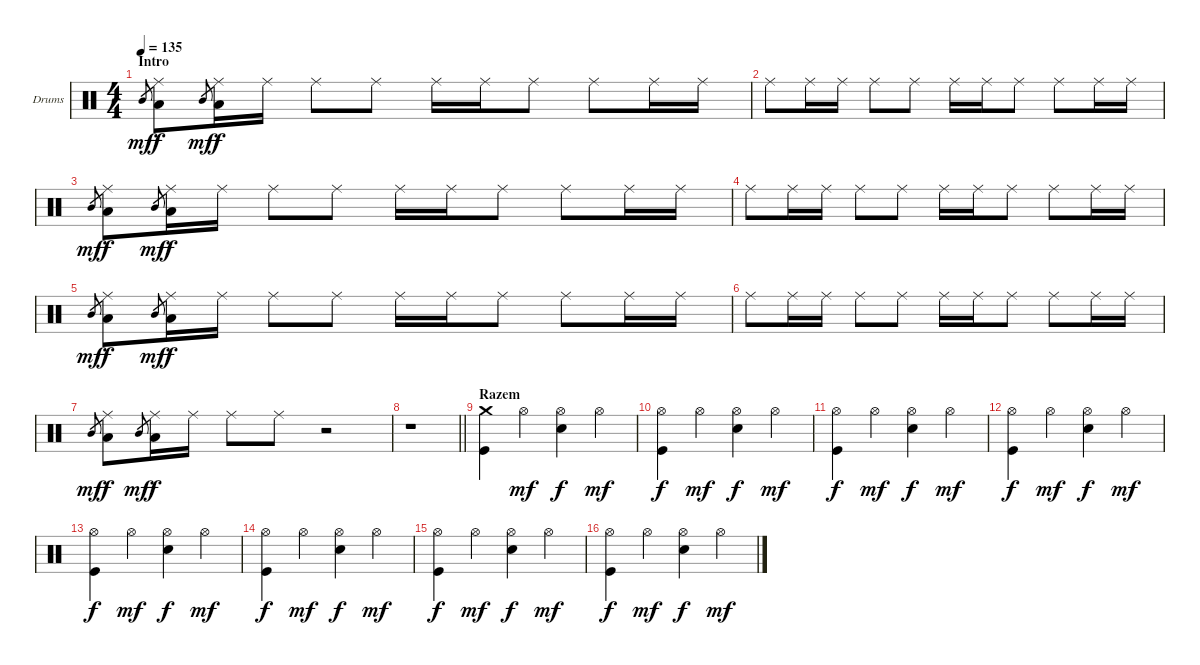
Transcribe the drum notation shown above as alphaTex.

\bracketExtendMode groupsimilarinstruments
\firstSystemTrackNameOrientation horizontal
\otherSystemsTrackNameOrientation horizontal
\track ("Drumkit" "Drums") {instrument percussion}
\staff {score}
\articulation defaults
\ts (4 4)
\beaming (8 2 2 2 2)
\section ("" "Intro")
\tempo 135
\clef neutral
\ks c "Mid Tom (hit)".8{gr dy mf}
("Ride (middle)" "Low Tom (hit)").8{dy f} "Mid Tom (hit)".8{gr dy mf} ("Ride (middle)" "Low Tom (hit)").16{dy f} "Ride (middle)".16 "Ride (middle)".8 "Ride (middle)".8 "Ride (middle)".16 "Ride (middle)".16 "Ride (middle)".8 "Ride (middle)".8 "Ride (middle)".16 "Ride (middle)".16 |
"Ride (middle)".8 "Ride (middle)".16 "Ride (middle)".16 "Ride (middle)".8 "Ride (middle)".8 "Ride (middle)".16 "Ride (middle)".16 "Ride (middle)".8 "Ride (middle)".8 "Ride (middle)".16 "Ride (middle)".16 |
"Mid Tom (hit)".8{gr dy mf} ("Ride (middle)" "Low Tom (hit)").8{dy f} "Mid Tom (hit)".8{gr dy mf} ("Ride (middle)" "Low Tom (hit)").16{dy f} "Ride (middle)".16 "Ride (middle)".8 "Ride (middle)".8 "Ride (middle)".16 "Ride (middle)".16 "Ride (middle)".8 "Ride (middle)".8 "Ride (middle)".16 "Ride (middle)".16 |
"Ride (middle)".8 "Ride (middle)".16 "Ride (middle)".16 "Ride (middle)".8 "Ride (middle)".8 "Ride (middle)".16 "Ride (middle)".16 "Ride (middle)".8 "Ride (middle)".8 "Ride (middle)".16 "Ride (middle)".16 |
"Mid Tom (hit)".8{gr dy mf} ("Ride (middle)" "Low Tom (hit)").8{dy f} "Mid Tom (hit)".8{gr dy mf} ("Ride (middle)" "Low Tom (hit)").16{dy f} "Ride (middle)".16 "Ride (middle)".8 "Ride (middle)".8 "Ride (middle)".16 "Ride (middle)".16 "Ride (middle)".8 "Ride (middle)".8 "Ride (middle)".16 "Ride (middle)".16 |
"Ride (middle)".8 "Ride (middle)".16 "Ride (middle)".16 "Ride (middle)".8 "Ride (middle)".8 "Ride (middle)".16 "Ride (middle)".16 "Ride (middle)".8 "Ride (middle)".8 "Ride (middle)".16 "Ride (middle)".16 |
"Mid Tom (hit)".8{gr dy mf} ("Ride (middle)" "Low Tom (hit)").8{dy f} "Mid Tom (hit)".8{gr dy mf} ("Ride (middle)" "Low Tom (hit)").16{dy f} "Ride (middle)".16 "Ride (middle)".8 "Ride (middle)".8 r.2 |
\barLineRight lightlight
r.1 |
\section ("" "Razem")
("Kick (hit)" "Crash medium (hit)").4 "Hi-Hat (open)".4{dy mf} ("Snare (hit) 2" "Hi-Hat (open)").4{dy f} "Hi-Hat (open)".4{dy mf} |
("Kick (hit)" "Hi-Hat (open)").4{dy f} "Hi-Hat (open)".4{dy mf} ("Snare (hit) 2" "Hi-Hat (open)").4{dy f} "Hi-Hat (open)".4{dy mf} |
("Kick (hit)" "Hi-Hat (open)").4{dy f} "Hi-Hat (open)".4{dy mf} ("Snare (hit) 2" "Hi-Hat (open)").4{dy f} "Hi-Hat (open)".4{dy mf} |
("Kick (hit)" "Hi-Hat (open)").4{dy f} "Hi-Hat (open)".4{dy mf} ("Snare (hit) 2" "Hi-Hat (open)").4{dy f} "Hi-Hat (open)".4{dy mf} |
("Kick (hit)" "Hi-Hat (open)").4{dy f} "Hi-Hat (open)".4{dy mf} ("Snare (hit) 2" "Hi-Hat (open)").4{dy f} "Hi-Hat (open)".4{dy mf} |
("Kick (hit)" "Hi-Hat (open)").4{dy f} "Hi-Hat (open)".4{dy mf} ("Snare (hit) 2" "Hi-Hat (open)").4{dy f} "Hi-Hat (open)".4{dy mf} |
("Kick (hit)" "Hi-Hat (open)").4{dy f} "Hi-Hat (open)".4{dy mf} ("Snare (hit) 2" "Hi-Hat (open)").4{dy f} "Hi-Hat (open)".4{dy mf} |
("Kick (hit)" "Hi-Hat (open)").4{dy f} "Hi-Hat (open)".4{dy mf} ("Snare (hit) 2" "Hi-Hat (open)").4{dy f} "Hi-Hat (open)".4{dy mf}
